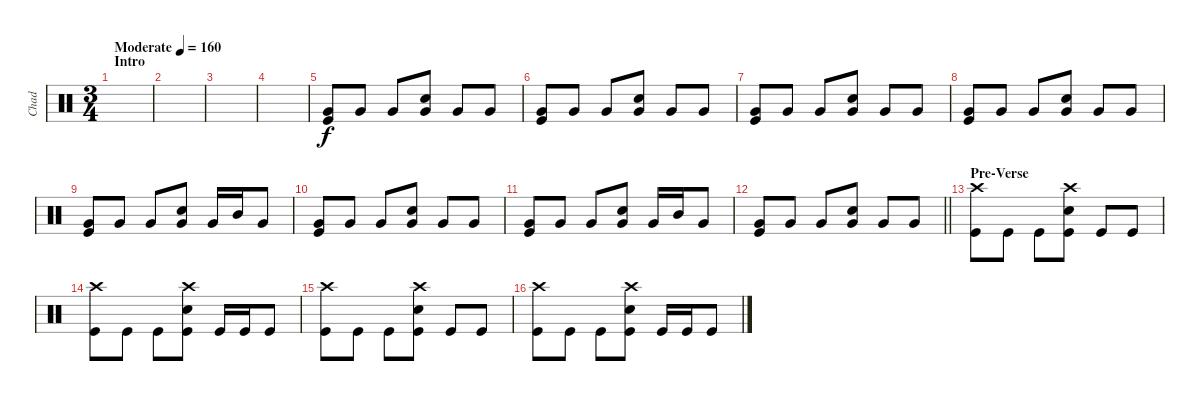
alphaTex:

\track ("Chad" "Chad") {instrument percussion}
\staff {score}
\articulation defaults
\ts (3 4)
\section ("" "Intro")
\tempo (160 "Moderate")
\clef neutral
\ks c
|
|
|
|
("Very Low Tom (hit)" "Kick (hit)").8 "Very Low Tom (hit)".8 "Very Low Tom (hit)".8 ("Very Low Tom (hit)" "Snare (hit) 2").8 "Very Low Tom (hit)".8 "Very Low Tom (hit)".8 |
("Very Low Tom (hit)" "Kick (hit)").8 "Very Low Tom (hit)".8 "Very Low Tom (hit)".8 ("Very Low Tom (hit)" "Snare (hit) 2").8 "Very Low Tom (hit)".8 "Very Low Tom (hit)".8 |
("Very Low Tom (hit)" "Kick (hit)").8 "Very Low Tom (hit)".8 "Very Low Tom (hit)".8 ("Very Low Tom (hit)" "Snare (hit) 2").8 "Very Low Tom (hit)".8 "Very Low Tom (hit)".8 |
("Very Low Tom (hit)" "Kick (hit)").8 "Very Low Tom (hit)".8 "Very Low Tom (hit)".8 ("Very Low Tom (hit)" "Snare (hit) 2").8 "Very Low Tom (hit)".8 "Very Low Tom (hit)".8 |
("Very Low Tom (hit)" "Kick (hit)").8 "Very Low Tom (hit)".8 "Very Low Tom (hit)".8 ("Very Low Tom (hit)" "Snare (hit) 2").8 "Very Low Tom (hit)".16 "Mid Tom (hit)".16 "Very Low Tom (hit)".8 |
("Very Low Tom (hit)" "Kick (hit)").8 "Very Low Tom (hit)".8 "Very Low Tom (hit)".8 ("Very Low Tom (hit)" "Snare (hit) 2").8 "Very Low Tom (hit)".8 "Very Low Tom (hit)".8 |
("Very Low Tom (hit)" "Kick (hit)").8 "Very Low Tom (hit)".8 "Very Low Tom (hit)".8 ("Very Low Tom (hit)" "Snare (hit) 2").8 "Very Low Tom (hit)".16 "Mid Tom (hit)".16 "Very Low Tom (hit)".8 |
\barLineRight lightlight
("Very Low Tom (hit)" "Kick (hit)").8 "Very Low Tom (hit)".8 "Very Low Tom (hit)".8 ("Very Low Tom (hit)" "Snare (hit) 2").8 "Very Low Tom (hit)".8 "Very Low Tom (hit)".8 |
\section ("" "Pre-Verse")
("Crash high (hit)" "Kick (hit)").8 "Kick (hit)".8 "Kick (hit)".8 ("Kick (hit)" "Snare (hit) 2" "Crash high (hit)").8 "Kick (hit)".8 "Kick (hit)".8 |
("Crash high (hit)" "Kick (hit)").8 "Kick (hit)".8 "Kick (hit)".8 ("Kick (hit)" "Snare (hit) 2" "Crash high (hit)").8 "Kick (hit)".16 "Kick (hit)".16 "Kick (hit)".8 |
("Crash high (hit)" "Kick (hit)").8 "Kick (hit)".8 "Kick (hit)".8 ("Kick (hit)" "Snare (hit) 2" "Crash high (hit)").8 "Kick (hit)".8 "Kick (hit)".8 |
("Crash high (hit)" "Kick (hit)").8 "Kick (hit)".8 "Kick (hit)".8 ("Kick (hit)" "Snare (hit) 2" "Crash high (hit)").8 "Kick (hit)".16 "Kick (hit)".16 "Kick (hit)".8
